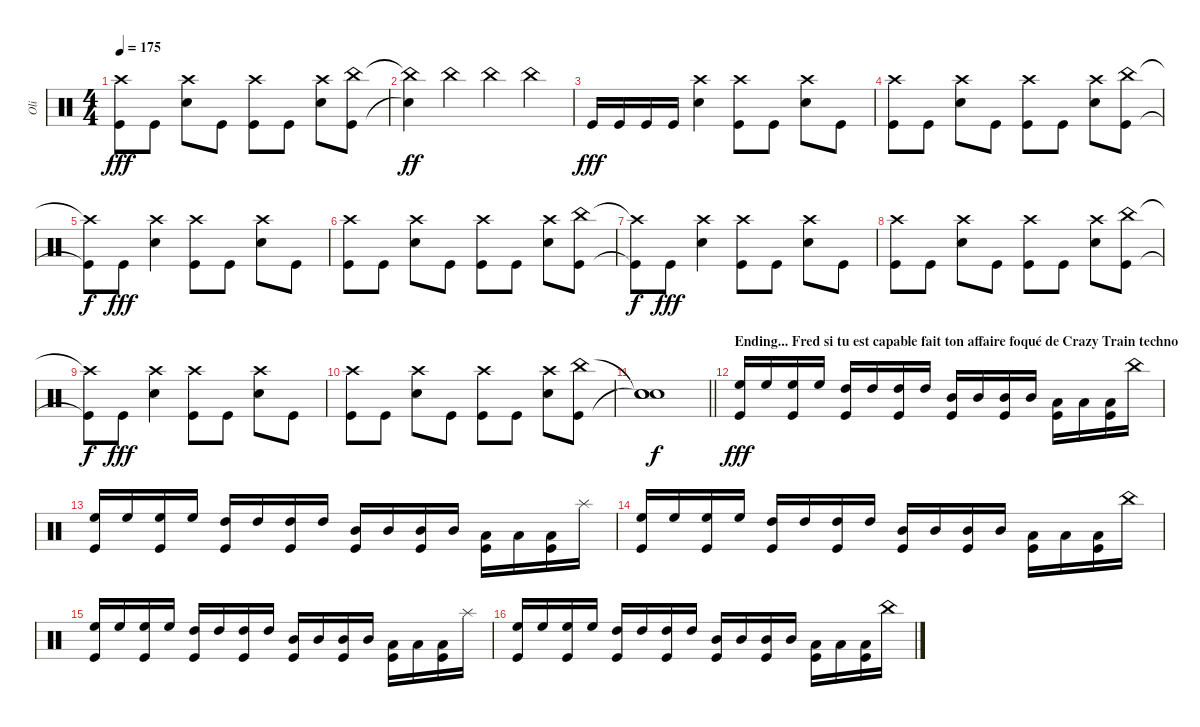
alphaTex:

\track ("Oli" "Oli") {instrument percussion}
\staff {score}
\articulation defaults
\ts (4 4)
\tempo 175
\clef neutral
\ks c
("Crash high (hit)" "Kick (hit)").8{dy fff} "Kick (hit)".8 ("Crash high (hit)" "Snare (hit) 2").8 "Kick (hit)".8 ("Crash high (hit)" "Kick (hit)").8 "Kick (hit)".8 ("Crash high (hit)" "Snare (hit) 2").8 ("China (hit)" "Kick (hit)").8 |
("China (hit)"{t} "Snare (hit)"{t}).4{dy ff} "China (hit)".4 "China (hit)".4 "China (hit)".4 |
"Kick (hit)".16{dy fff} "Kick (hit)".16 "Kick (hit)".16 "Kick (hit)".16 ("Crash high (hit)" "Snare (hit) 2").4 ("Crash high (hit)" "Kick (hit)").8 "Kick (hit)".8 ("Crash high (hit)" "Snare (hit) 2").8 "Kick (hit)".8 |
("Crash high (hit)" "Kick (hit)").8 "Kick (hit)".8 ("Crash high (hit)" "Snare (hit) 2").8 "Kick (hit)".8 ("Crash high (hit)" "Kick (hit)").8 "Kick (hit)".8 ("Crash high (hit)" "Snare (hit) 2").8 ("China (hit)" "Kick (hit)").8 |
("Crash high (hit)"{t} "Kick (hit)"{t}).8{dy f} "Kick (hit)".8{dy fff} ("Crash high (hit)" "Snare (hit) 2").4 ("Crash high (hit)" "Kick (hit)").8 "Kick (hit)".8 ("Crash high (hit)" "Snare (hit) 2").8 "Kick (hit)".8 |
("Crash high (hit)" "Kick (hit)").8 "Kick (hit)".8 ("Crash high (hit)" "Snare (hit) 2").8 "Kick (hit)".8 ("Crash high (hit)" "Kick (hit)").8 "Kick (hit)".8 ("Crash high (hit)" "Snare (hit) 2").8 ("China (hit)" "Kick (hit)").8 |
("Crash high (hit)"{t} "Kick (hit)"{t}).8{dy f} "Kick (hit)".8{dy fff} ("Crash high (hit)" "Snare (hit) 2").4 ("Crash high (hit)" "Kick (hit)").8 "Kick (hit)".8 ("Crash high (hit)" "Snare (hit) 2").8 "Kick (hit)".8 |
("Crash high (hit)" "Kick (hit)").8 "Kick (hit)".8 ("Crash high (hit)" "Snare (hit) 2").8 "Kick (hit)".8 ("Crash high (hit)" "Kick (hit)").8 "Kick (hit)".8 ("Crash high (hit)" "Snare (hit) 2").8 ("China (hit)" "Kick (hit)").8 |
("Crash high (hit)"{t} "Kick (hit)"{t}).8{dy f} "Kick (hit)".8{dy fff} ("Crash high (hit)" "Snare (hit) 2").4 ("Crash high (hit)" "Kick (hit)").8 "Kick (hit)".8 ("Crash high (hit)" "Snare (hit) 2").8 "Kick (hit)".8 |
("Crash high (hit)" "Kick (hit)").8 "Kick (hit)".8 ("Crash high (hit)" "Snare (hit) 2").8 "Kick (hit)".8 ("Crash high (hit)" "Kick (hit)").8 "Kick (hit)".8 ("Crash high (hit)" "Snare (hit) 2").8 ("China (hit)" "Kick (hit)").8 |
\barLineRight lightlight
("Snare (hit)"{t} "Snare (hit)"{t} "Snare (hit)").1{dy f} |
\section ("" "Ending... Fred si tu est capable fait ton affaire foqué de Crazy Train techno")
("High Floor Tom (hit)" "Kick (hit)").16{dy fff} "High Floor Tom (hit)".16 ("High Floor Tom (hit)" "Kick (hit)").16 "High Floor Tom (hit)".16 ("High Tom (hit)" "Kick (hit)").16 "High Tom (hit)".16 ("High Tom (hit)" "Kick (hit)").16 "High Tom (hit)".16 ("Mid Tom (hit)" "Kick (hit)").16 "Mid Tom (hit)".16 ("Mid Tom (hit)" "Kick (hit)").16 "Mid Tom (hit)".16 ("Low Tom (hit)" "Kick (hit)").16 "Low Tom (hit)".16 ("Low Tom (hit)" "Kick (hit)").16 "China (hit)".16 |
("High Floor Tom (hit)" "Kick (hit)").16 "High Floor Tom (hit)".16 ("High Floor Tom (hit)" "Kick (hit)").16 "High Floor Tom (hit)".16 ("High Tom (hit)" "Kick (hit)").16 "High Tom (hit)".16 ("High Tom (hit)" "Kick (hit)").16 "High Tom (hit)".16 ("Mid Tom (hit)" "Kick (hit)").16 "Mid Tom (hit)".16 ("Mid Tom (hit)" "Kick (hit)").16 "Mid Tom (hit)".16 ("Low Tom (hit)" "Kick (hit)").16 "Low Tom (hit)".16 ("Low Tom (hit)" "Kick (hit)").16 "Splash (hit)".16 |
("High Floor Tom (hit)" "Kick (hit)").16 "High Floor Tom (hit)".16 ("High Floor Tom (hit)" "Kick (hit)").16 "High Floor Tom (hit)".16 ("High Tom (hit)" "Kick (hit)").16 "High Tom (hit)".16 ("High Tom (hit)" "Kick (hit)").16 "High Tom (hit)".16 ("Mid Tom (hit)" "Kick (hit)").16 "Mid Tom (hit)".16 ("Mid Tom (hit)" "Kick (hit)").16 "Mid Tom (hit)".16 ("Low Tom (hit)" "Kick (hit)").16 "Low Tom (hit)".16 ("Low Tom (hit)" "Kick (hit)").16 "China (hit)".16 |
("High Floor Tom (hit)" "Kick (hit)").16 "High Floor Tom (hit)".16 ("High Floor Tom (hit)" "Kick (hit)").16 "High Floor Tom (hit)".16 ("High Tom (hit)" "Kick (hit)").16 "High Tom (hit)".16 ("High Tom (hit)" "Kick (hit)").16 "High Tom (hit)".16 ("Mid Tom (hit)" "Kick (hit)").16 "Mid Tom (hit)".16 ("Mid Tom (hit)" "Kick (hit)").16 "Mid Tom (hit)".16 ("Low Tom (hit)" "Kick (hit)").16 "Low Tom (hit)".16 ("Low Tom (hit)" "Kick (hit)").16 "Splash (hit)".16 |
("High Floor Tom (hit)" "Kick (hit)").16 "High Floor Tom (hit)".16 ("High Floor Tom (hit)" "Kick (hit)").16 "High Floor Tom (hit)".16 ("High Tom (hit)" "Kick (hit)").16 "High Tom (hit)".16 ("High Tom (hit)" "Kick (hit)").16 "High Tom (hit)".16 ("Mid Tom (hit)" "Kick (hit)").16 "Mid Tom (hit)".16 ("Mid Tom (hit)" "Kick (hit)").16 "Mid Tom (hit)".16 ("Low Tom (hit)" "Kick (hit)").16 "Low Tom (hit)".16 ("Low Tom (hit)" "Kick (hit)").16 "China (hit)".16
